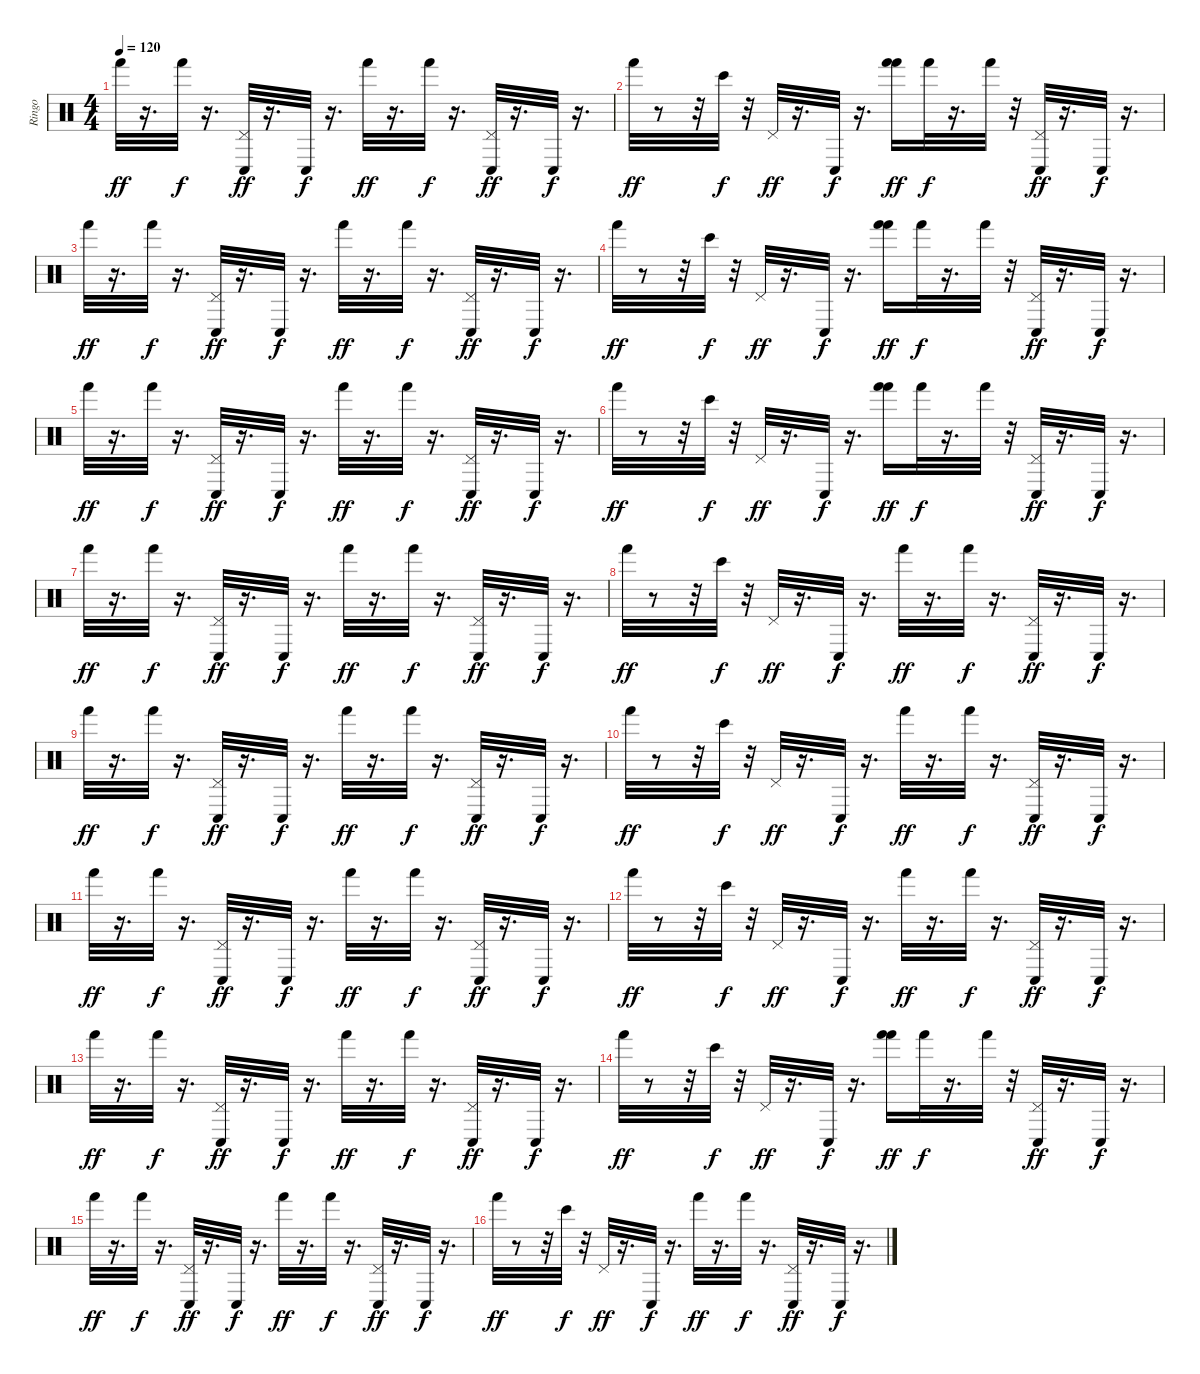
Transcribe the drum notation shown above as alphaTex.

\track ("Ringo" "Ringo") {instrument percussion}
\staff {score}
\articulation defaults
\ts (4 4)
\tempo 120
\clef neutral
\ks c "Hand (hit)".32{dy ff}
r.16{d} "Hand (hit)".32{dy f} r.16{d} ("Pedal Hi-Hat (hit)" "Conga low (hit)").32{dy ff} r.16{d} "Conga low (hit)".32{dy f} r.16{d} "Hand (hit)".32{dy ff} r.16{d} "Hand (hit)".32{dy f} r.16{d} ("Pedal Hi-Hat (hit)" "Conga low (hit)").32{dy ff} r.16{d} "Conga low (hit)".32{dy f} r.16{d} |
"Hand (hit)".32{dy ff} r.8 r.32 "Bongo High (hit)".32{dy f} r.32 "Pedal Hi-Hat (hit)".32{dy ff} r.16{d} "Conga low (hit)".32{dy f} r.16{d} ("Hand (hit)" "Hand (hit)").16{dy ff} "Hand (hit)".32{dy f} r.16{d} "Hand (hit)".32 r.32 ("Conga low (hit)" "Pedal Hi-Hat (hit)").32{dy ff} r.16{d} "Conga low (hit)".32{dy f} r.16{d} |
"Hand (hit)".32{dy ff} r.16{d} "Hand (hit)".32{dy f} r.16{d} ("Conga low (hit)" "Pedal Hi-Hat (hit)").32{dy ff} r.16{d} "Conga low (hit)".32{dy f} r.16{d} "Hand (hit)".32{dy ff} r.16{d} "Hand (hit)".32{dy f} r.16{d} ("Pedal Hi-Hat (hit)" "Conga low (hit)").32{dy ff} r.16{d} "Conga low (hit)".32{dy f} r.16{d} |
"Hand (hit)".32{dy ff} r.8 r.32 "Bongo High (hit)".32{dy f} r.32 "Pedal Hi-Hat (hit)".32{dy ff} r.16{d} "Conga low (hit)".32{dy f} r.16{d} ("Hand (hit)" "Hand (hit)").16{dy ff} "Hand (hit)".32{dy f} r.16{d} "Hand (hit)".32 r.32 ("Pedal Hi-Hat (hit)" "Conga low (hit)").32{dy ff} r.16{d} "Conga low (hit)".32{dy f} r.16{d} |
"Hand (hit)".32{dy ff} r.16{d} "Hand (hit)".32{dy f} r.16{d} ("Conga low (hit)" "Pedal Hi-Hat (hit)").32{dy ff} r.16{d} "Conga low (hit)".32{dy f} r.16{d} "Hand (hit)".32{dy ff} r.16{d} "Hand (hit)".32{dy f} r.16{d} ("Pedal Hi-Hat (hit)" "Conga low (hit)").32{dy ff} r.16{d} "Conga low (hit)".32{dy f} r.16{d} |
"Hand (hit)".32{dy ff} r.8 r.32 "Bongo High (hit)".32{dy f} r.32 "Pedal Hi-Hat (hit)".32{dy ff} r.16{d} "Conga low (hit)".32{dy f} r.16{d} ("Hand (hit)" "Hand (hit)").16{dy ff} "Hand (hit)".32{dy f} r.16{d} "Hand (hit)".32 r.32 ("Conga low (hit)" "Pedal Hi-Hat (hit)").32{dy ff} r.16{d} "Conga low (hit)".32{dy f} r.16{d} |
"Hand (hit)".32{dy ff} r.16{d} "Hand (hit)".32{dy f} r.16{d} ("Pedal Hi-Hat (hit)" "Conga low (hit)").32{dy ff} r.16{d} "Conga low (hit)".32{dy f} r.16{d} "Hand (hit)".32{dy ff} r.16{d} "Hand (hit)".32{dy f} r.16{d} ("Conga low (hit)" "Pedal Hi-Hat (hit)").32{dy ff} r.16{d} "Conga low (hit)".32{dy f} r.16{d} |
"Hand (hit)".32{dy ff} r.8 r.32 "Bongo High (hit)".32{dy f} r.32 "Pedal Hi-Hat (hit)".32{dy ff} r.16{d} "Conga low (hit)".32{dy f} r.16{d} "Hand (hit)".32{dy ff} r.16{d} "Hand (hit)".32{dy f} r.16{d} ("Pedal Hi-Hat (hit)" "Conga low (hit)").32{dy ff} r.16{d} "Conga low (hit)".32{dy f} r.16{d} |
"Hand (hit)".32{dy ff} r.16{d} "Hand (hit)".32{dy f} r.16{d} ("Pedal Hi-Hat (hit)" "Conga low (hit)").32{dy ff} r.16{d} "Conga low (hit)".32{dy f} r.16{d} "Hand (hit)".32{dy ff} r.16{d} "Hand (hit)".32{dy f} r.16{d} ("Conga low (hit)" "Pedal Hi-Hat (hit)").32{dy ff} r.16{d} "Conga low (hit)".32{dy f} r.16{d} |
"Hand (hit)".32{dy ff} r.8 r.32 "Bongo High (hit)".32{dy f} r.32 "Pedal Hi-Hat (hit)".32{dy ff} r.16{d} "Conga low (hit)".32{dy f} r.16{d} "Hand (hit)".32{dy ff} r.16{d} "Hand (hit)".32{dy f} r.16{d} ("Pedal Hi-Hat (hit)" "Conga low (hit)").32{dy ff} r.16{d} "Conga low (hit)".32{dy f} r.16{d} |
"Hand (hit)".32{dy ff} r.16{d} "Hand (hit)".32{dy f} r.16{d} ("Pedal Hi-Hat (hit)" "Conga low (hit)").32{dy ff} r.16{d} "Conga low (hit)".32{dy f} r.16{d} "Hand (hit)".32{dy ff} r.16{d} "Hand (hit)".32{dy f} r.16{d} ("Conga low (hit)" "Pedal Hi-Hat (hit)").32{dy ff} r.16{d} "Conga low (hit)".32{dy f} r.16{d} |
"Hand (hit)".32{dy ff} r.8 r.32 "Bongo High (hit)".32{dy f} r.32 "Pedal Hi-Hat (hit)".32{dy ff} r.16{d} "Conga low (hit)".32{dy f} r.16{d} "Hand (hit)".32{dy ff} r.16{d} "Hand (hit)".32{dy f} r.16{d} ("Conga low (hit)" "Pedal Hi-Hat (hit)").32{dy ff} r.16{d} "Conga low (hit)".32{dy f} r.16{d} |
"Hand (hit)".32{dy ff} r.16{d} "Hand (hit)".32{dy f} r.16{d} ("Pedal Hi-Hat (hit)" "Conga low (hit)").32{dy ff} r.16{d} "Conga low (hit)".32{dy f} r.16{d} "Hand (hit)".32{dy ff} r.16{d} "Hand (hit)".32{dy f} r.16{d} ("Conga low (hit)" "Pedal Hi-Hat (hit)").32{dy ff} r.16{d} "Conga low (hit)".32{dy f} r.16{d} |
"Hand (hit)".32{dy ff} r.8 r.32 "Bongo High (hit)".32{dy f} r.32 "Pedal Hi-Hat (hit)".32{dy ff} r.16{d} "Conga low (hit)".32{dy f} r.16{d} ("Hand (hit)" "Hand (hit)").16{dy ff} "Hand (hit)".32{dy f} r.16{d} "Hand (hit)".32 r.32 ("Pedal Hi-Hat (hit)" "Conga low (hit)").32{dy ff} r.16{d} "Conga low (hit)".32{dy f} r.16{d} |
"Hand (hit)".32{dy ff} r.16{d} "Hand (hit)".32{dy f} r.16{d} ("Pedal Hi-Hat (hit)" "Conga low (hit)").32{dy ff} r.16{d} "Conga low (hit)".32{dy f} r.16{d} "Hand (hit)".32{dy ff} r.16{d} "Hand (hit)".32{dy f} r.16{d} ("Conga low (hit)" "Pedal Hi-Hat (hit)").32{dy ff} r.16{d} "Conga low (hit)".32{dy f} r.16{d} |
"Hand (hit)".32{dy ff} r.8 r.32 "Bongo High (hit)".32{dy f} r.32 "Pedal Hi-Hat (hit)".32{dy ff} r.16{d} "Conga low (hit)".32{dy f} r.16{d} "Hand (hit)".32{dy ff} r.16{d} "Hand (hit)".32{dy f} r.16{d} ("Conga low (hit)" "Pedal Hi-Hat (hit)").32{dy ff} r.16{d} "Conga low (hit)".32{dy f} r.16{d}
